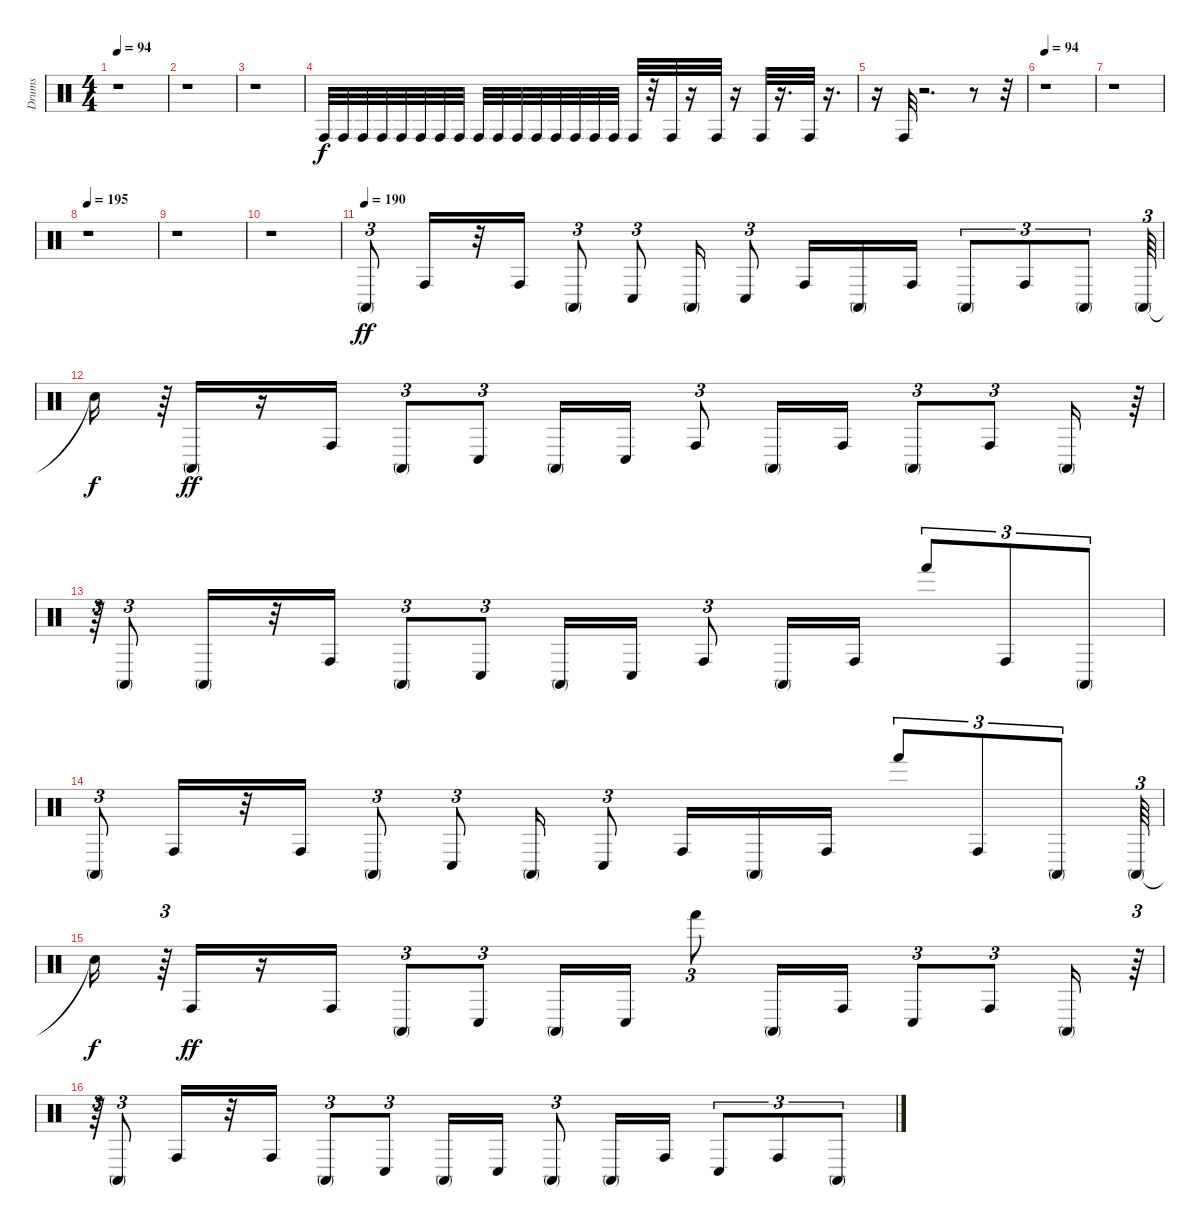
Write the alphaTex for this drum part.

\track ("Drums" "Drums") {instrument percussion}
\staff {score}
\articulation defaults
\ts (4 4)
\tempo 94
\clef neutral
\ks c
r.1{dy f} |
r.1 |
r.1 |
"Conga high (hit)".32 "Conga high (hit)".32 "Conga high (hit)".32 "Conga high (hit)".32 "Conga high (hit)".32 "Conga high (hit)".32 "Conga high (hit)".32 "Conga high (hit)".32 "Conga high (hit)".32 "Conga high (hit)".32 "Conga high (hit)".32 "Conga high (hit)".32 "Conga high (hit)".32 "Conga high (hit)".32 "Conga high (hit)".32 "Conga high (hit)".32 "Conga high (hit)".32 r.32 "Conga high (hit)".32 r.16 "Conga high (hit)".32 r.16 "Conga high (hit)".32 r.16{d} "Conga high (hit)".32 r.16{d} |
r.16 "Conga high (hit)".32 r.2{d} r.8 r.32 |
\tempo 94
r.1 |
r.1 |
\tempo 195
r.1 |
r.1 |
r.1 |
\tempo (190)
"Conga high (mute)".8{tu (3 2) dy ff} "Conga high (hit)".16 r.32 "Conga high (hit)".16 "Conga high (mute)".8{tu (3 2)} "Conga low (hit)".8{tu (3 2)} "Conga high (mute)".16 "Conga low (hit)".8{tu (3 2)} "Conga high (hit)".16 "Conga high (mute)".16 "Conga high (hit)".16 "Conga high (mute)".8{tu (3 2)} "Conga high (hit)".8{tu (3 2)} "Conga high (mute)".8{tu (3 2)} "Conga high (mute)".64{tu (3 2)} |
"Snare (hit)"{t}.16{dy f} r.64{tu (3 2)} "Conga high (mute)".16{dy ff} r.16 "Conga high (hit)".16 "Conga high (mute)".8{tu (3 2)} "Conga low (hit)".8{tu (3 2)} "Conga high (mute)".16 "Conga low (hit)".16 "Conga high (hit)".8{tu (3 2)} "Conga high (mute)".16 "Conga high (hit)".16 "Conga high (mute)".8{tu (3 2)} "Conga high (hit)".8{tu (3 2)} "Conga high (mute)".16 r.64{tu (3 2)} |
r.64{tu (3 2)} "Conga high (mute)".8{tu (3 2)} "Conga high (mute)".16 r.32 "Conga high (hit)".16 "Conga high (mute)".8{tu (3 2)} "Conga low (hit)".8{tu (3 2)} "Conga high (mute)".16 "Conga low (hit)".16 "Conga high (hit)".8{tu (3 2)} "Conga high (mute)".16 "Conga high (hit)".16 "Hand (hit)".8{tu (3 2)} "Conga high (hit)".8{tu (3 2)} "Conga high (mute)".8{tu (3 2)} |
"Conga high (mute)".8{tu (3 2)} "Conga high (hit)".16 r.32 "Conga high (hit)".16 "Conga high (mute)".8{tu (3 2)} "Conga low (hit)".8{tu (3 2)} "Conga high (mute)".16 "Conga low (hit)".8{tu (3 2)} "Conga high (hit)".16 "Conga high (mute)".16 "Conga high (hit)".16 "Hand (hit)".8{tu (3 2)} "Conga high (hit)".8{tu (3 2)} "Conga high (mute)".8{tu (3 2)} "Conga high (mute)".64{tu (3 2)} |
"Snare (hit)"{t}.16{dy f} r.64{tu (3 2)} "Conga high (hit)".16{dy ff} r.16 "Conga high (hit)".16 "Conga high (mute)".8{tu (3 2)} "Conga low (hit)".8{tu (3 2)} "Conga high (mute)".16 "Conga low (hit)".16 "Hand (hit)".8{tu (3 2)} "Conga high (mute)".16 "Conga high (hit)".16 "Conga low (hit)".8{tu (3 2)} "Conga high (hit)".8{tu (3 2)} "Conga high (mute)".16 r.64{tu (3 2)} |
r.64{tu (3 2)} "Conga high (mute)".8{tu (3 2)} "Conga high (hit)".16 r.32 "Conga high (hit)".16 "Conga high (mute)".8{tu (3 2)} "Conga low (hit)".8{tu (3 2)} "Conga high (mute)".16 "Conga low (hit)".16 "Conga high (mute)".8{tu (3 2)} "Conga high (mute)".16 "Conga high (hit)".16 "Conga low (hit)".8{tu (3 2)} "Conga high (hit)".8{tu (3 2)} "Conga high (mute)".8{tu (3 2)}
